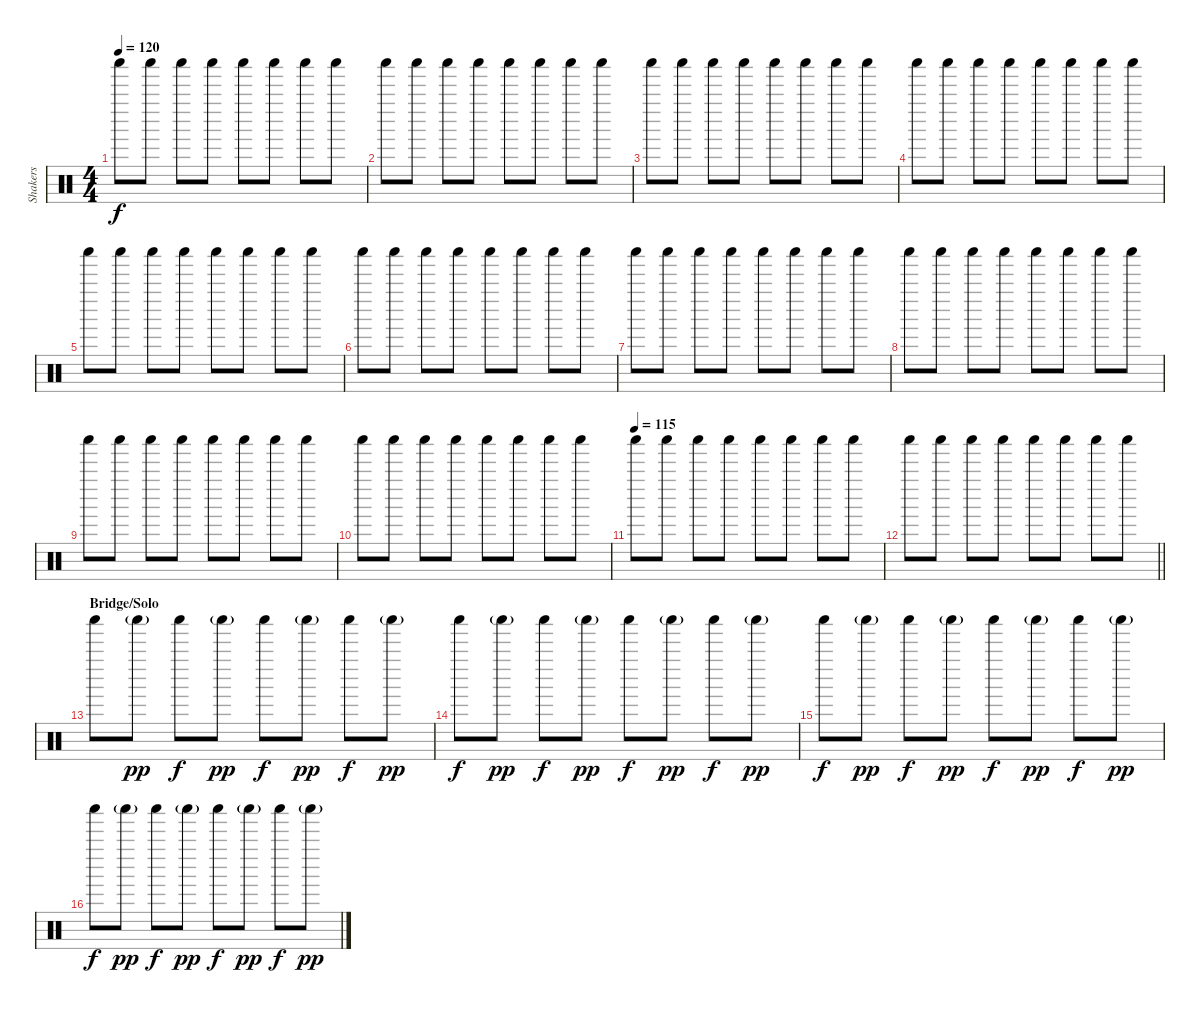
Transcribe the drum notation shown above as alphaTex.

\track ("Shakers" "Shakers") {instrument percussion}
\staff {score}
\articulation defaults
\ts (4 4)
\tempo 120
\clef neutral
\ks c "Shaker (hit)".8{dy f} "Shaker (hit)".8 "Shaker (hit)".8 "Shaker (hit)".8 "Shaker (hit)".8 "Shaker (hit)".8 "Shaker (hit)".8 "Shaker (hit)".8
|
"Shaker (hit)".8 "Shaker (hit)".8 "Shaker (hit)".8 "Shaker (hit)".8 "Shaker (hit)".8 "Shaker (hit)".8 "Shaker (hit)".8 "Shaker (hit)".8 |
"Shaker (hit)".8 "Shaker (hit)".8 "Shaker (hit)".8 "Shaker (hit)".8 "Shaker (hit)".8 "Shaker (hit)".8 "Shaker (hit)".8 "Shaker (hit)".8 |
"Shaker (hit)".8 "Shaker (hit)".8 "Shaker (hit)".8 "Shaker (hit)".8 "Shaker (hit)".8 "Shaker (hit)".8 "Shaker (hit)".8 "Shaker (hit)".8 |
"Shaker (hit)".8 "Shaker (hit)".8 "Shaker (hit)".8 "Shaker (hit)".8 "Shaker (hit)".8 "Shaker (hit)".8 "Shaker (hit)".8 "Shaker (hit)".8 |
"Shaker (hit)".8 "Shaker (hit)".8 "Shaker (hit)".8 "Shaker (hit)".8 "Shaker (hit)".8 "Shaker (hit)".8 "Shaker (hit)".8 "Shaker (hit)".8 |
"Shaker (hit)".8 "Shaker (hit)".8 "Shaker (hit)".8 "Shaker (hit)".8 "Shaker (hit)".8 "Shaker (hit)".8 "Shaker (hit)".8 "Shaker (hit)".8 |
"Shaker (hit)".8 "Shaker (hit)".8 "Shaker (hit)".8 "Shaker (hit)".8 "Shaker (hit)".8 "Shaker (hit)".8 "Shaker (hit)".8 "Shaker (hit)".8 |
"Shaker (hit)".8 "Shaker (hit)".8 "Shaker (hit)".8 "Shaker (hit)".8 "Shaker (hit)".8 "Shaker (hit)".8 "Shaker (hit)".8 "Shaker (hit)".8 |
"Shaker (hit)".8 "Shaker (hit)".8 "Shaker (hit)".8 "Shaker (hit)".8 "Shaker (hit)".8 "Shaker (hit)".8 "Shaker (hit)".8 "Shaker (hit)".8 |
\tempo (115)
"Shaker (hit)".8 "Shaker (hit)".8 "Shaker (hit)".8 "Shaker (hit)".8 "Shaker (hit)".8 "Shaker (hit)".8 "Shaker (hit)".8 "Shaker (hit)".8 |
\barLineRight lightlight "Shaker (hit)".8 "Shaker (hit)".8 "Shaker (hit)".8 "Shaker (hit)".8 "Shaker (hit)".8 "Shaker (hit)".8 "Shaker (hit)".8 "Shaker (hit)".8
|
\section ("" "Bridge/Solo")
"Shaker (hit)".8 "Shaker (hit)"{g}.8{dy pp} "Shaker (hit)".8{dy f} "Shaker (hit)"{g}.8{dy pp} "Shaker (hit)".8{dy f} "Shaker (hit)"{g}.8{dy pp} "Shaker (hit)".8{dy f} "Shaker (hit)"{g}.8{dy pp} |
"Shaker (hit)".8{dy f} "Shaker (hit)"{g}.8{dy pp} "Shaker (hit)".8{dy f} "Shaker (hit)"{g}.8{dy pp} "Shaker (hit)".8{dy f} "Shaker (hit)"{g}.8{dy pp} "Shaker (hit)".8{dy f} "Shaker (hit)"{g}.8{dy pp} |
"Shaker (hit)".8{dy f} "Shaker (hit)"{g}.8{dy pp} "Shaker (hit)".8{dy f} "Shaker (hit)"{g}.8{dy pp} "Shaker (hit)".8{dy f} "Shaker (hit)"{g}.8{dy pp} "Shaker (hit)".8{dy f} "Shaker (hit)"{g}.8{dy pp} |
"Shaker (hit)".8{dy f} "Shaker (hit)"{g}.8{dy pp} "Shaker (hit)".8{dy f} "Shaker (hit)"{g}.8{dy pp} "Shaker (hit)".8{dy f} "Shaker (hit)"{g}.8{dy pp} "Shaker (hit)".8{dy f} "Shaker (hit)"{g}.8{dy pp}
